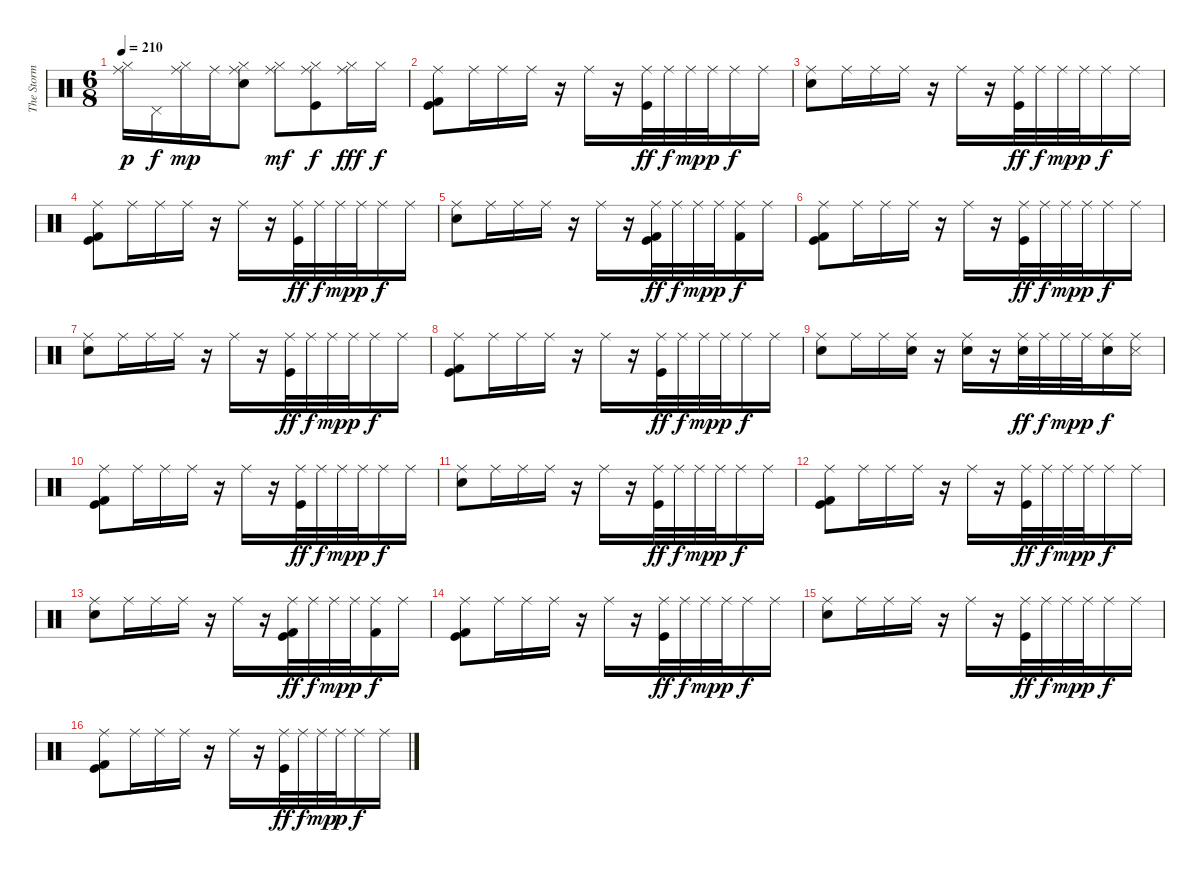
\track ("The Storm" "The Storm") {instrument percussion}
\staff {score}
\articulation defaults
\ts (6 8)
\tempo 210
\clef neutral
\ks c
("Ride (middle)" "Hi-Hat (closed)").16{dy p} "Pedal Hi-Hat (hit)".16{dy f} ("Ride (middle)" "Hi-Hat (closed)").16{dy mp} "Ride (middle)".16 ("Ride (middle)" "Hi-Hat (closed)" "Electric Snare (hit)").8 ("Ride (middle)" "Hi-Hat (closed)").8{dy mf} ("Ride (middle)" "Kick (hit)" "Hi-Hat (closed)").8{dy f} ("Ride (middle)" "Hi-Hat (closed)").16{dy fff} "Hi-Hat (closed)".16{dy f} |
("Ride (middle)" "Kick (hit) 2" "Kick (hit)").8 "Ride (middle)".16 "Ride (middle)".16 "Ride (middle)".16 r.16 "Ride (middle)".16 r.16 ("Ride (middle)" "Kick (hit)").32{dy ff} "Ride (middle)".32{dy f} "Ride (middle)".32{dy mp} "Ride (middle)".32{dy p} "Ride (middle)".16{dy f} "Ride (middle)".16 |
("Ride (middle)" "Electric Snare (hit)").8 "Ride (middle)".16 "Ride (middle)".16 "Ride (middle)".16 r.16 "Ride (middle)".16 r.16 ("Kick (hit)" "Ride (middle)").32{dy ff} "Ride (middle)".32{dy f} "Ride (middle)".32{dy mp} "Ride (middle)".32{dy p} "Ride (middle)".16{dy f} "Ride (middle)".16 |
("Ride (middle)" "Kick (hit) 2" "Kick (hit)").8 "Ride (middle)".16 "Ride (middle)".16 "Ride (middle)".16 r.16 "Ride (middle)".16 r.16 ("Kick (hit)" "Ride (middle)").32{dy ff} "Ride (middle)".32{dy f} "Ride (middle)".32{dy mp} "Ride (middle)".32{dy p} "Ride (middle)".16{dy f} "Ride (middle)".16 |
("Ride (middle)" "Electric Snare (hit)").8 "Ride (middle)".16 "Ride (middle)".16 "Ride (middle)".16 r.16 "Ride (middle)".16 r.16 ("Ride (middle)" "Kick (hit) 2" "Kick (hit)").32{dy ff} "Ride (middle)".32{dy f} "Ride (middle)".32{dy mp} "Ride (middle)".32{dy p} ("Kick (hit) 2" "Ride (middle)").16{dy f} "Ride (middle)".16 |
("Kick (hit) 2" "Kick (hit)" "Ride (middle)").8 "Ride (middle)".16 "Ride (middle)".16 "Ride (middle)".16 r.16 "Ride (middle)".16 r.16 ("Ride (middle)" "Kick (hit)").32{dy ff} "Ride (middle)".32{dy f} "Ride (middle)".32{dy mp} "Ride (middle)".32{dy p} "Ride (middle)".16{dy f} "Ride (middle)".16 |
("Ride (middle)" "Electric Snare (hit)").8 "Ride (middle)".16 "Ride (middle)".16 "Ride (middle)".16 r.16 "Ride (middle)".16 r.16 ("Ride (middle)" "Kick (hit)").32{dy ff} "Ride (middle)".32{dy f} "Ride (middle)".32{dy mp} "Ride (middle)".32{dy p} "Ride (middle)".16{dy f} "Ride (middle)".16 |
("Kick (hit) 2" "Kick (hit)" "Ride (middle)").8 "Ride (middle)".16 "Ride (middle)".16 "Ride (middle)".16 r.16 "Ride (middle)".16 r.16 ("Kick (hit)" "Ride (middle)").32{dy ff} "Ride (middle)".32{dy f} "Ride (middle)".32{dy mp} "Ride (middle)".32{dy p} "Ride (middle)".16{dy f} "Ride (middle)".16 |
("Ride (middle)" "Electric Snare (hit)").8 "Ride (middle)".16 "Ride (middle)".16 ("Ride (middle)" "Electric Snare (hit)").16 r.16 ("Ride (middle)" "Electric Snare (hit)").16 r.16 ("Electric Snare (hit)" "Ride (middle)").32{dy ff} "Ride (middle)".32{dy f} "Ride (middle)".32{dy mp} "Ride (middle)".32{dy p} ("Electric Snare (hit)" "Ride (middle)").16{dy f} ("Ride (middle)" "Metronome (hit)").16 |
("Kick (hit) 2" "Ride (middle)" "Kick (hit)").8 "Ride (middle)".16 "Ride (middle)".16 "Ride (middle)".16 r.16 "Ride (middle)".16 r.16 ("Kick (hit)" "Ride (middle)").32{dy ff} "Ride (middle)".32{dy f} "Ride (middle)".32{dy mp} "Ride (middle)".32{dy p} "Ride (middle)".16{dy f} "Ride (middle)".16 |
("Electric Snare (hit)" "Ride (middle)").8 "Ride (middle)".16 "Ride (middle)".16 "Ride (middle)".16 r.16 "Ride (middle)".16 r.16 ("Ride (middle)" "Kick (hit)").32{dy ff} "Ride (middle)".32{dy f} "Ride (middle)".32{dy mp} "Ride (middle)".32{dy p} "Ride (middle)".16{dy f} "Ride (middle)".16 |
("Ride (middle)" "Kick (hit) 2" "Kick (hit)").8 "Ride (middle)".16 "Ride (middle)".16 "Ride (middle)".16 r.16 "Ride (middle)".16 r.16 ("Kick (hit)" "Ride (middle)").32{dy ff} "Ride (middle)".32{dy f} "Ride (middle)".32{dy mp} "Ride (middle)".32{dy p} "Ride (middle)".16{dy f} "Ride (middle)".16 |
("Electric Snare (hit)" "Ride (middle)").8 "Ride (middle)".16 "Ride (middle)".16 "Ride (middle)".16 r.16 "Ride (middle)".16 r.16 ("Kick (hit) 2" "Kick (hit)" "Ride (middle)").32{dy ff} "Ride (middle)".32{dy f} "Ride (middle)".32{dy mp} "Ride (middle)".32{dy p} ("Kick (hit) 2" "Ride (middle)").16{dy f} "Ride (middle)".16 |
("Ride (middle)" "Kick (hit) 2" "Kick (hit)").8 "Ride (middle)".16 "Ride (middle)".16 "Ride (middle)".16 r.16 "Ride (middle)".16 r.16 ("Kick (hit)" "Ride (middle)").32{dy ff} "Ride (middle)".32{dy f} "Ride (middle)".32{dy mp} "Ride (middle)".32{dy p} "Ride (middle)".16{dy f} "Ride (middle)".16 |
("Ride (middle)" "Electric Snare (hit)").8 "Ride (middle)".16 "Ride (middle)".16 "Ride (middle)".16 r.16 "Ride (middle)".16 r.16 ("Ride (middle)" "Kick (hit)").32{dy ff} "Ride (middle)".32{dy f} "Ride (middle)".32{dy mp} "Ride (middle)".32{dy p} "Ride (middle)".16{dy f} "Ride (middle)".16 |
("Kick (hit) 2" "Ride (middle)" "Kick (hit)").8 "Ride (middle)".16 "Ride (middle)".16 "Ride (middle)".16 r.16 "Ride (middle)".16 r.16 ("Ride (middle)" "Kick (hit)").32{dy ff} "Ride (middle)".32{dy f} "Ride (middle)".32{dy mp} "Ride (middle)".32{dy p} "Ride (middle)".16{dy f} "Ride (middle)".16
